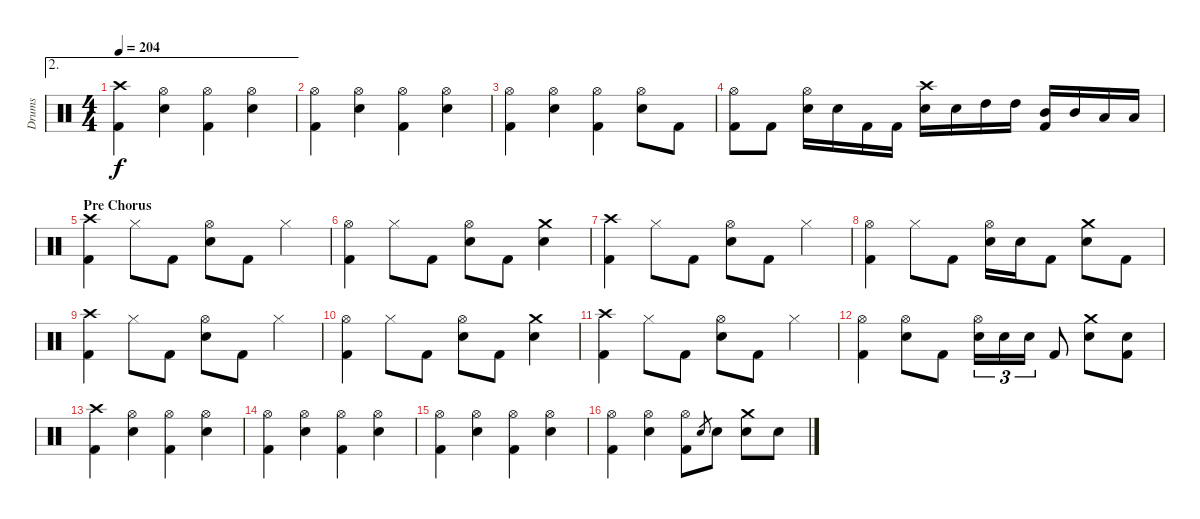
\track ("Drums" "Drums") {instrument percussion}
\staff {score}
\articulation defaults
\ae 2
\ts (4 4)
\tempo 204
\clef neutral
\ks c
("Crash high (hit)" "Kick (hit) 2").4{dy f} ("Hi-Hat (open)" "Electric Snare (hit)").4 ("Hi-Hat (open)" "Kick (hit) 2").4 ("Hi-Hat (open)" "Electric Snare (hit)").4 |
("Hi-Hat (open)" "Kick (hit) 2").4 ("Hi-Hat (open)" "Electric Snare (hit)").4 ("Hi-Hat (open)" "Kick (hit) 2").4 ("Hi-Hat (open)" "Electric Snare (hit)").4 |
("Hi-Hat (open)" "Kick (hit) 2").4 ("Hi-Hat (open)" "Electric Snare (hit)").4 ("Hi-Hat (open)" "Kick (hit) 2").4 ("Hi-Hat (open)" "Electric Snare (hit)").8 "Kick (hit) 2".8 |
("Hi-Hat (open)" "Kick (hit) 2").8 "Kick (hit) 2".8 ("Hi-Hat (open)" "Electric Snare (hit)").16 "Electric Snare (hit)".16 "Kick (hit) 2".16 "Kick (hit) 2".16 ("Crash high (hit)" "Electric Snare (hit)").16 "Electric Snare (hit)".16 "High Tom (hit)".16 "High Tom (hit)".16 ("Mid Tom (hit)" "Kick (hit) 2").16 "Mid Tom (hit)".16 "Low Tom (hit)".16 "Low Tom (hit)".16 |
\section ("" "Pre Chorus")
("Crash high (hit)" "Kick (hit) 2").4 "Hi-Hat (closed)".8 "Kick (hit) 2".8 ("Hi-Hat (open)" "Electric Snare (hit)").8 "Kick (hit) 2".8 "Hi-Hat (closed)".4 |
("Hi-Hat (open)" "Kick (hit) 2").4 "Hi-Hat (closed)".8 "Kick (hit) 2".8 ("Hi-Hat (open)" "Electric Snare (hit)").8 "Kick (hit) 2".8 ("Crash medium (hit)" "Electric Snare (hit)").4 |
("Crash high (hit)" "Kick (hit) 2").4 "Hi-Hat (closed)".8 "Kick (hit) 2".8 ("Hi-Hat (open)" "Electric Snare (hit)").8 "Kick (hit) 2".8 "Hi-Hat (closed)".4 |
("Hi-Hat (open)" "Kick (hit) 2").4 "Hi-Hat (closed)".8 "Kick (hit) 2".8 ("Hi-Hat (open)" "Electric Snare (hit)").16 "Electric Snare (hit)".16 "Kick (hit) 2".8 ("Crash medium (hit)" "Electric Snare (hit)").8 "Kick (hit) 2".8 |
("Crash high (hit)" "Kick (hit) 2").4 "Hi-Hat (closed)".8 "Kick (hit) 2".8 ("Hi-Hat (open)" "Electric Snare (hit)").8 "Kick (hit) 2".8 "Hi-Hat (closed)".4 |
("Hi-Hat (open)" "Kick (hit) 2").4 "Hi-Hat (closed)".8 "Kick (hit) 2".8 ("Hi-Hat (open)" "Electric Snare (hit)").8 "Kick (hit) 2".8 ("Crash medium (hit)" "Electric Snare (hit)").4 |
("Crash high (hit)" "Kick (hit) 2").4 "Hi-Hat (closed)".8 "Kick (hit) 2".8 ("Hi-Hat (open)" "Electric Snare (hit)").8 "Kick (hit) 2".8 "Hi-Hat (closed)".4 |
("Hi-Hat (open)" "Kick (hit) 2").4 ("Hi-Hat (open)" "Electric Snare (hit)").8 "Kick (hit) 2".8 ("Hi-Hat (open)" "Electric Snare (hit)").16{tu (3 2)} "Electric Snare (hit)".16{tu (3 2)} "Electric Snare (hit)".16{tu (3 2)} "Kick (hit) 2".8 ("Crash medium (hit)" "Electric Snare (hit)").8 ("Electric Snare (hit)" "Kick (hit) 2").8 |
("Crash high (hit)" "Kick (hit) 2").4 ("Hi-Hat (open)" "Electric Snare (hit)").4 ("Hi-Hat (open)" "Kick (hit) 2").4 ("Hi-Hat (open)" "Electric Snare (hit)").4 |
("Hi-Hat (open)" "Kick (hit) 2").4 ("Hi-Hat (open)" "Electric Snare (hit)").4 ("Hi-Hat (open)" "Kick (hit) 2").4 ("Hi-Hat (open)" "Electric Snare (hit)").4 |
("Hi-Hat (open)" "Kick (hit) 2").4 ("Hi-Hat (open)" "Electric Snare (hit)").4 ("Hi-Hat (open)" "Kick (hit) 2").4 ("Hi-Hat (open)" "Electric Snare (hit)").4 |
("Hi-Hat (open)" "Kick (hit) 2").4 ("Hi-Hat (open)" "Electric Snare (hit)").4 ("Hi-Hat (open)" "Kick (hit) 2").8 "Electric Snare (hit)".8{gr} "Electric Snare (hit)".8 ("Crash medium (hit)" "Electric Snare (hit)").8 "Electric Snare (hit)".8
